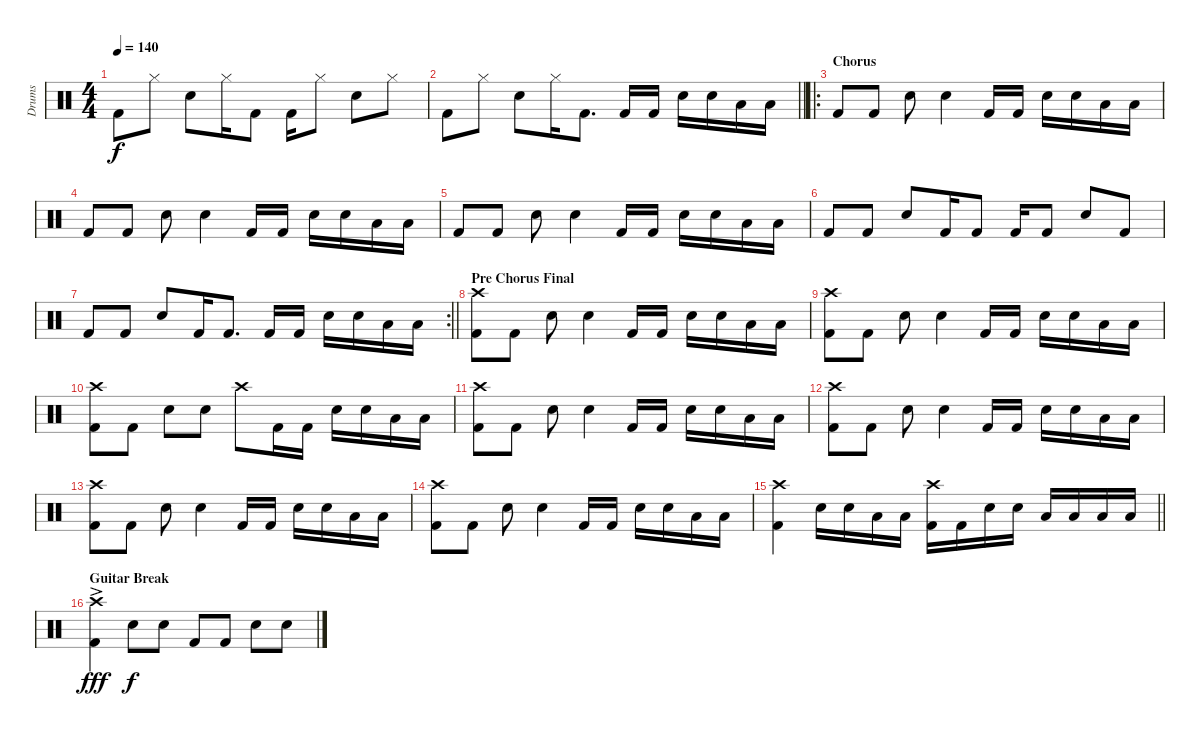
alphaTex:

\track ("Drums" "Drums") {instrument percussion}
\staff {score}
\articulation defaults
\ts (4 4)
\tempo 140
\clef neutral
\ks c "Kick (hit) 2".8{dy f} "Hi-Hat (closed)".8 "Snare (hit) 2".8 "Hi-Hat (closed)".16 "Kick (hit) 2".8 "Kick (hit) 2".16 "Hi-Hat (closed)".8 "Snare (hit) 2".8 "Hi-Hat (closed)".8
|
\barLineRight lightlight "Kick (hit) 2".8 "Hi-Hat (closed)".8 "Snare (hit) 2".8 "Hi-Hat (closed)".16 "Kick (hit) 2".8{d} "Kick (hit) 2".16 "Kick (hit) 2".16 "Snare (hit) 2".16 "Snare (hit) 2".16 "Low Floor Tom (hit)".16 "Low Floor Tom (hit)".16
|
\ro
\section ("" "Chorus")
"Kick (hit) 2".8 "Kick (hit) 2".8 "Snare (hit) 2".8 "Snare (hit) 2".4 "Kick (hit) 2".16 "Kick (hit) 2".16 "Snare (hit) 2".16 "Snare (hit) 2".16 "Low Floor Tom (hit)".16 "Low Floor Tom (hit)".16 |
"Kick (hit) 2".8 "Kick (hit) 2".8 "Snare (hit) 2".8 "Snare (hit) 2".4 "Kick (hit) 2".16 "Kick (hit) 2".16 "Snare (hit) 2".16 "Snare (hit) 2".16 "Low Floor Tom (hit)".16 "Low Floor Tom (hit)".16 |
"Kick (hit) 2".8 "Kick (hit) 2".8 "Snare (hit) 2".8 "Snare (hit) 2".4 "Kick (hit) 2".16 "Kick (hit) 2".16 "Snare (hit) 2".16 "Snare (hit) 2".16 "Low Floor Tom (hit)".16 "Low Floor Tom (hit)".16 |
"Kick (hit) 2".8 "Kick (hit) 2".8 "Snare (hit) 2".8 "Kick (hit) 2".16 "Kick (hit) 2".8 "Kick (hit) 2".16 "Kick (hit) 2".8 "Snare (hit) 2".8 "Kick (hit) 2".8 |
\rc 2
\barLineRight lightlight "Kick (hit) 2".8 "Kick (hit) 2".8 "Snare (hit) 2".8 "Kick (hit) 2".16 "Kick (hit) 2".8{d} "Kick (hit) 2".16 "Kick (hit) 2".16 "Snare (hit) 2".16 "Snare (hit) 2".16 "Low Floor Tom (hit)".16 "Low Floor Tom (hit)".16
|
\section ("" "Pre Chorus Final")
("Crash high (hit)" "Kick (hit) 2").8 "Kick (hit) 2".8 "Snare (hit) 2".8 "Snare (hit) 2".4 "Kick (hit) 2".16 "Kick (hit) 2".16 "Snare (hit) 2".16 "Snare (hit) 2".16 "Low Floor Tom (hit)".16 "Low Floor Tom (hit)".16 |
("Crash high (hit)" "Kick (hit) 2").8 "Kick (hit) 2".8 "Snare (hit) 2".8 "Snare (hit) 2".4 "Kick (hit) 2".16 "Kick (hit) 2".16 "Snare (hit) 2".16 "Snare (hit) 2".16 "Low Floor Tom (hit)".16 "Low Floor Tom (hit)".16 |
("Crash high (hit)" "Kick (hit) 2").8 "Kick (hit) 2".8 "Snare (hit) 2".8 "Snare (hit) 2".8 "Crash high (hit)".8 "Kick (hit) 2".16 "Kick (hit) 2".16 "Snare (hit) 2".16 "Snare (hit) 2".16 "Low Floor Tom (hit)".16 "Low Floor Tom (hit)".16 |
("Crash high (hit)" "Kick (hit) 2").8 "Kick (hit) 2".8 "Snare (hit) 2".8 "Snare (hit) 2".4 "Kick (hit) 2".16 "Kick (hit) 2".16 "Snare (hit) 2".16 "Snare (hit) 2".16 "Low Floor Tom (hit)".16 "Low Floor Tom (hit)".16 |
("Crash high (hit)" "Kick (hit) 2").8 "Kick (hit) 2".8 "Snare (hit) 2".8 "Snare (hit) 2".4 "Kick (hit) 2".16 "Kick (hit) 2".16 "Snare (hit) 2".16 "Snare (hit) 2".16 "Low Floor Tom (hit)".16 "Low Floor Tom (hit)".16 |
("Crash high (hit)" "Kick (hit) 2").8 "Kick (hit) 2".8 "Snare (hit) 2".8 "Snare (hit) 2".4 "Kick (hit) 2".16 "Kick (hit) 2".16 "Snare (hit) 2".16 "Snare (hit) 2".16 "Low Floor Tom (hit)".16 "Low Floor Tom (hit)".16 |
("Crash high (hit)" "Kick (hit) 2").8 "Kick (hit) 2".8 "Snare (hit) 2".8 "Snare (hit) 2".4 "Kick (hit) 2".16 "Kick (hit) 2".16 "Snare (hit) 2".16 "Snare (hit) 2".16 "Low Floor Tom (hit)".16 "Low Floor Tom (hit)".16 |
\barLineRight lightlight
("Crash high (hit)" "Kick (hit) 2").4 "Snare (hit) 2".16 "Snare (hit) 2".16 "Low Floor Tom (hit)".16 "Low Floor Tom (hit)".16 ("Crash high (hit)" "Kick (hit) 2").16 "Kick (hit) 2".16 "Snare (hit) 2".16 "Snare (hit) 2".16 "Low Tom (hit)".16 "Low Tom (hit)".16 "Low Floor Tom (hit)".16 "Low Floor Tom (hit)".16 |
\section ("" "Guitar Break")
("Crash high (hit)"{ac} "Kick (hit) 2"{ac}).4{dy fff} "Snare (hit) 2".8{dy f} "Snare (hit) 2".8 "Kick (hit) 2".8 "Kick (hit) 2".8 "Snare (hit) 2".8 "Snare (hit) 2".8
